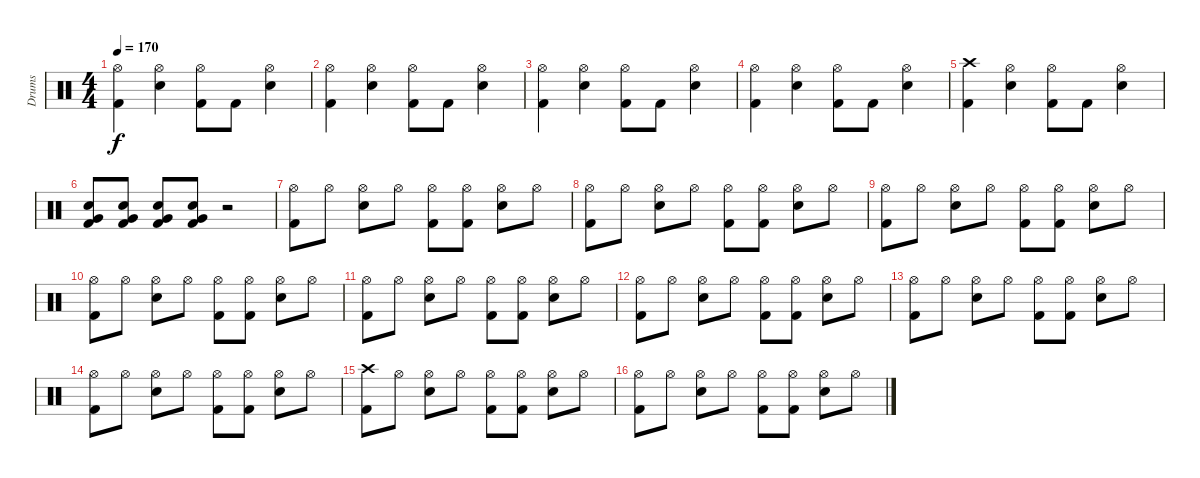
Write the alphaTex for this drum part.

\track ("Drums" "Drums") {instrument percussion}
\staff {score}
\articulation defaults
\ts (4 4)
\tempo 170
\clef neutral
\ks c
("Hi-Hat (open)" "Kick (hit) 2").4{dy f} ("Hi-Hat (open)" "Snare (hit) 2").4 ("Hi-Hat (open)" "Kick (hit) 2").8 "Kick (hit) 2".8 ("Hi-Hat (open)" "Snare (hit) 2").4 |
("Hi-Hat (open)" "Kick (hit) 2").4 ("Hi-Hat (open)" "Snare (hit) 2").4 ("Hi-Hat (open)" "Kick (hit) 2").8 "Kick (hit) 2".8 ("Hi-Hat (open)" "Snare (hit) 2").4 |
("Hi-Hat (open)" "Kick (hit) 2").4 ("Hi-Hat (open)" "Snare (hit) 2").4 ("Hi-Hat (open)" "Kick (hit) 2").8 "Kick (hit) 2".8 ("Hi-Hat (open)" "Snare (hit) 2").4 |
("Hi-Hat (open)" "Kick (hit) 2").4 ("Hi-Hat (open)" "Snare (hit) 2").4 ("Hi-Hat (open)" "Kick (hit) 2").8 "Kick (hit) 2".8 ("Hi-Hat (open)" "Snare (hit) 2").4 |
("Crash high (hit)" "Kick (hit) 2").4 ("Hi-Hat (open)" "Snare (hit) 2").4 ("Hi-Hat (open)" "Kick (hit) 2").8 "Kick (hit) 2".8 ("Hi-Hat (open)" "Snare (hit) 2").4 |
("Snare (hit) 2" "Very Low Tom (hit)" "Kick (hit) 2").8 ("Snare (hit) 2" "Very Low Tom (hit)" "Kick (hit) 2").8 ("Snare (hit) 2" "Very Low Tom (hit)" "Kick (hit) 2").8 ("Snare (hit) 2" "Very Low Tom (hit)" "Kick (hit) 2").8 r.2 |
("Hi-Hat (open)" "Kick (hit) 2").8 "Hi-Hat (open)".8 ("Hi-Hat (open)" "Snare (hit) 2").8 "Hi-Hat (open)".8 ("Hi-Hat (open)" "Kick (hit) 2").8 ("Hi-Hat (open)" "Kick (hit) 2").8 ("Hi-Hat (open)" "Snare (hit) 2").8 "Hi-Hat (open)".8 |
("Hi-Hat (open)" "Kick (hit) 2").8 "Hi-Hat (open)".8 ("Hi-Hat (open)" "Snare (hit) 2").8 "Hi-Hat (open)".8 ("Hi-Hat (open)" "Kick (hit) 2").8 ("Hi-Hat (open)" "Kick (hit) 2").8 ("Hi-Hat (open)" "Snare (hit) 2").8 "Hi-Hat (open)".8 |
("Hi-Hat (open)" "Kick (hit) 2").8 "Hi-Hat (open)".8 ("Hi-Hat (open)" "Snare (hit) 2").8 "Hi-Hat (open)".8 ("Hi-Hat (open)" "Kick (hit) 2").8 ("Hi-Hat (open)" "Kick (hit) 2").8 ("Hi-Hat (open)" "Snare (hit) 2").8 "Hi-Hat (open)".8 |
("Hi-Hat (open)" "Kick (hit) 2").8 "Hi-Hat (open)".8 ("Hi-Hat (open)" "Snare (hit) 2").8 "Hi-Hat (open)".8 ("Hi-Hat (open)" "Kick (hit) 2").8 ("Hi-Hat (open)" "Kick (hit) 2").8 ("Hi-Hat (open)" "Snare (hit) 2").8 "Hi-Hat (open)".8 |
("Hi-Hat (open)" "Kick (hit) 2").8 "Hi-Hat (open)".8 ("Hi-Hat (open)" "Snare (hit) 2").8 "Hi-Hat (open)".8 ("Hi-Hat (open)" "Kick (hit) 2").8 ("Hi-Hat (open)" "Kick (hit) 2").8 ("Hi-Hat (open)" "Snare (hit) 2").8 "Hi-Hat (open)".8 |
("Hi-Hat (open)" "Kick (hit) 2").8 "Hi-Hat (open)".8 ("Hi-Hat (open)" "Snare (hit) 2").8 "Hi-Hat (open)".8 ("Hi-Hat (open)" "Kick (hit) 2").8 ("Hi-Hat (open)" "Kick (hit) 2").8 ("Hi-Hat (open)" "Snare (hit) 2").8 "Hi-Hat (open)".8 |
("Hi-Hat (open)" "Kick (hit) 2").8 "Hi-Hat (open)".8 ("Hi-Hat (open)" "Snare (hit) 2").8 "Hi-Hat (open)".8 ("Hi-Hat (open)" "Kick (hit) 2").8 ("Hi-Hat (open)" "Kick (hit) 2").8 ("Hi-Hat (open)" "Snare (hit) 2").8 "Hi-Hat (open)".8 |
("Hi-Hat (open)" "Kick (hit) 2").8 "Hi-Hat (open)".8 ("Hi-Hat (open)" "Snare (hit) 2").8 "Hi-Hat (open)".8 ("Hi-Hat (open)" "Kick (hit) 2").8 ("Hi-Hat (open)" "Kick (hit) 2").8 ("Hi-Hat (open)" "Snare (hit) 2").8 "Hi-Hat (open)".8 |
("Crash high (hit)" "Kick (hit) 2").8 "Hi-Hat (open)".8 ("Hi-Hat (open)" "Snare (hit) 2").8 "Hi-Hat (open)".8 ("Hi-Hat (open)" "Kick (hit) 2").8 ("Hi-Hat (open)" "Kick (hit) 2").8 ("Hi-Hat (open)" "Snare (hit) 2").8 "Hi-Hat (open)".8 |
("Hi-Hat (open)" "Kick (hit) 2").8 "Hi-Hat (open)".8 ("Hi-Hat (open)" "Snare (hit) 2").8 "Hi-Hat (open)".8 ("Hi-Hat (open)" "Kick (hit) 2").8 ("Hi-Hat (open)" "Kick (hit) 2").8 ("Hi-Hat (open)" "Snare (hit) 2").8 "Hi-Hat (open)".8
